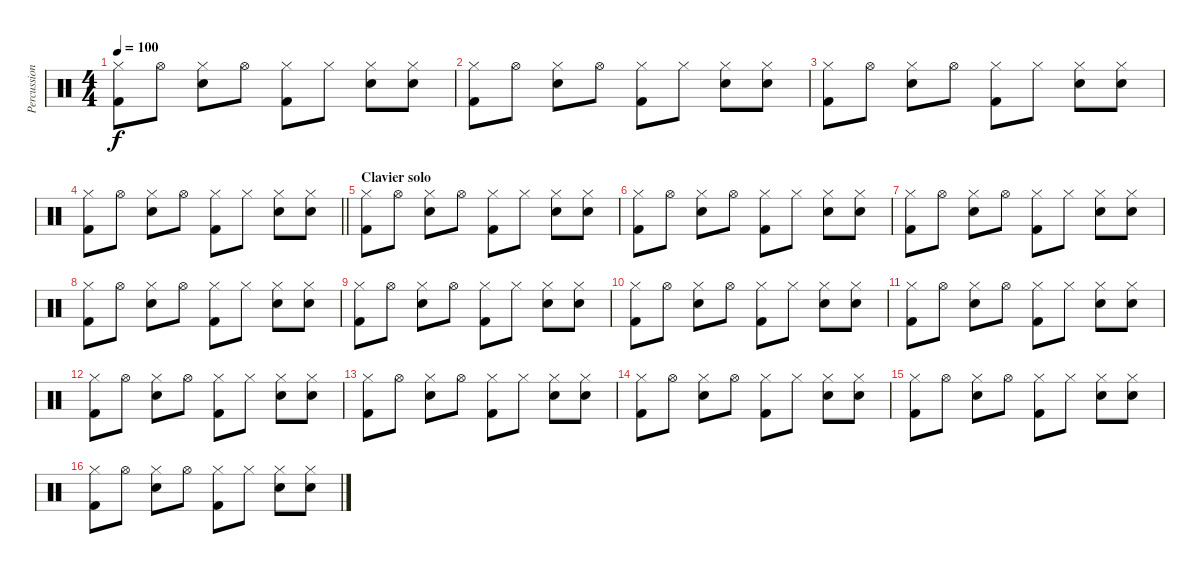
\track ("Percussions" "Percussion") {instrument percussion}
\staff {score}
\articulation defaults
\ts (4 4)
\tempo 100
\clef neutral
\ks c
("Hi-Hat (closed)" "Kick (hit) 2").8{dy f} "Hi-Hat (open)".8 ("Hi-Hat (closed)" "Snare (hit) 2").8 "Hi-Hat (open)".8 ("Hi-Hat (closed)" "Kick (hit) 2").8 "Hi-Hat (closed)".8 ("Hi-Hat (closed)" "Snare (hit) 2").8 ("Hi-Hat (closed)" "Snare (hit) 2").8 |
("Hi-Hat (closed)" "Kick (hit) 2").8 "Hi-Hat (open)".8 ("Hi-Hat (closed)" "Snare (hit) 2").8 "Hi-Hat (open)".8 ("Hi-Hat (closed)" "Kick (hit) 2").8 "Hi-Hat (closed)".8 ("Hi-Hat (closed)" "Snare (hit) 2").8 ("Hi-Hat (closed)" "Snare (hit) 2").8 |
("Hi-Hat (closed)" "Kick (hit) 2").8 "Hi-Hat (open)".8 ("Hi-Hat (closed)" "Snare (hit) 2").8 "Hi-Hat (open)".8 ("Hi-Hat (closed)" "Kick (hit) 2").8 "Hi-Hat (closed)".8 ("Hi-Hat (closed)" "Snare (hit) 2").8 ("Hi-Hat (closed)" "Snare (hit) 2").8 |
\barLineRight lightlight
("Hi-Hat (closed)" "Kick (hit) 2").8 "Hi-Hat (open)".8 ("Hi-Hat (closed)" "Snare (hit) 2").8 "Hi-Hat (open)".8 ("Hi-Hat (closed)" "Kick (hit) 2").8 "Hi-Hat (closed)".8 ("Hi-Hat (closed)" "Snare (hit) 2").8 ("Hi-Hat (closed)" "Snare (hit) 2").8 |
\section ("" "Clavier solo")
("Hi-Hat (closed)" "Kick (hit) 2").8 "Hi-Hat (open)".8 ("Hi-Hat (closed)" "Snare (hit) 2").8 "Hi-Hat (open)".8 ("Hi-Hat (closed)" "Kick (hit) 2").8 "Hi-Hat (closed)".8 ("Hi-Hat (closed)" "Snare (hit) 2").8 ("Hi-Hat (closed)" "Snare (hit) 2").8 |
("Hi-Hat (closed)" "Kick (hit) 2").8 "Hi-Hat (open)".8 ("Hi-Hat (closed)" "Snare (hit) 2").8 "Hi-Hat (open)".8 ("Hi-Hat (closed)" "Kick (hit) 2").8 "Hi-Hat (closed)".8 ("Hi-Hat (closed)" "Snare (hit) 2").8 ("Hi-Hat (closed)" "Snare (hit) 2").8 |
("Hi-Hat (closed)" "Kick (hit) 2").8 "Hi-Hat (open)".8 ("Hi-Hat (closed)" "Snare (hit) 2").8 "Hi-Hat (open)".8 ("Hi-Hat (closed)" "Kick (hit) 2").8 "Hi-Hat (closed)".8 ("Hi-Hat (closed)" "Snare (hit) 2").8 ("Hi-Hat (closed)" "Snare (hit) 2").8 |
("Hi-Hat (closed)" "Kick (hit) 2").8 "Hi-Hat (open)".8 ("Hi-Hat (closed)" "Snare (hit) 2").8 "Hi-Hat (open)".8 ("Hi-Hat (closed)" "Kick (hit) 2").8 "Hi-Hat (closed)".8 ("Hi-Hat (closed)" "Snare (hit) 2").8 ("Hi-Hat (closed)" "Snare (hit) 2").8 |
("Hi-Hat (closed)" "Kick (hit) 2").8 "Hi-Hat (open)".8 ("Hi-Hat (closed)" "Snare (hit) 2").8 "Hi-Hat (open)".8 ("Hi-Hat (closed)" "Kick (hit) 2").8 "Hi-Hat (closed)".8 ("Hi-Hat (closed)" "Snare (hit) 2").8 ("Hi-Hat (closed)" "Snare (hit) 2").8 |
("Hi-Hat (closed)" "Kick (hit) 2").8 "Hi-Hat (open)".8 ("Hi-Hat (closed)" "Snare (hit) 2").8 "Hi-Hat (open)".8 ("Hi-Hat (closed)" "Kick (hit) 2").8 "Hi-Hat (closed)".8 ("Hi-Hat (closed)" "Snare (hit) 2").8 ("Hi-Hat (closed)" "Snare (hit) 2").8 |
("Hi-Hat (closed)" "Kick (hit) 2").8 "Hi-Hat (open)".8 ("Hi-Hat (closed)" "Snare (hit) 2").8 "Hi-Hat (open)".8 ("Hi-Hat (closed)" "Kick (hit) 2").8 "Hi-Hat (closed)".8 ("Hi-Hat (closed)" "Snare (hit) 2").8 ("Hi-Hat (closed)" "Snare (hit) 2").8 |
("Hi-Hat (closed)" "Kick (hit) 2").8 "Hi-Hat (open)".8 ("Hi-Hat (closed)" "Snare (hit) 2").8 "Hi-Hat (open)".8 ("Hi-Hat (closed)" "Kick (hit) 2").8 "Hi-Hat (closed)".8 ("Hi-Hat (closed)" "Snare (hit) 2").8 ("Hi-Hat (closed)" "Snare (hit) 2").8 |
("Hi-Hat (closed)" "Kick (hit) 2").8 "Hi-Hat (open)".8 ("Hi-Hat (closed)" "Snare (hit) 2").8 "Hi-Hat (open)".8 ("Hi-Hat (closed)" "Kick (hit) 2").8 "Hi-Hat (closed)".8 ("Hi-Hat (closed)" "Snare (hit) 2").8 ("Hi-Hat (closed)" "Snare (hit) 2").8 |
("Hi-Hat (closed)" "Kick (hit) 2").8 "Hi-Hat (open)".8 ("Hi-Hat (closed)" "Snare (hit) 2").8 "Hi-Hat (open)".8 ("Hi-Hat (closed)" "Kick (hit) 2").8 "Hi-Hat (closed)".8 ("Hi-Hat (closed)" "Snare (hit) 2").8 ("Hi-Hat (closed)" "Snare (hit) 2").8 |
("Hi-Hat (closed)" "Kick (hit) 2").8 "Hi-Hat (open)".8 ("Hi-Hat (closed)" "Snare (hit) 2").8 "Hi-Hat (open)".8 ("Hi-Hat (closed)" "Kick (hit) 2").8 "Hi-Hat (closed)".8 ("Hi-Hat (closed)" "Snare (hit) 2").8 ("Hi-Hat (closed)" "Snare (hit) 2").8 |
("Hi-Hat (closed)" "Kick (hit) 2").8 "Hi-Hat (open)".8 ("Hi-Hat (closed)" "Snare (hit) 2").8 "Hi-Hat (open)".8 ("Hi-Hat (closed)" "Kick (hit) 2").8 "Hi-Hat (closed)".8 ("Hi-Hat (closed)" "Snare (hit) 2").8 ("Hi-Hat (closed)" "Snare (hit) 2").8
